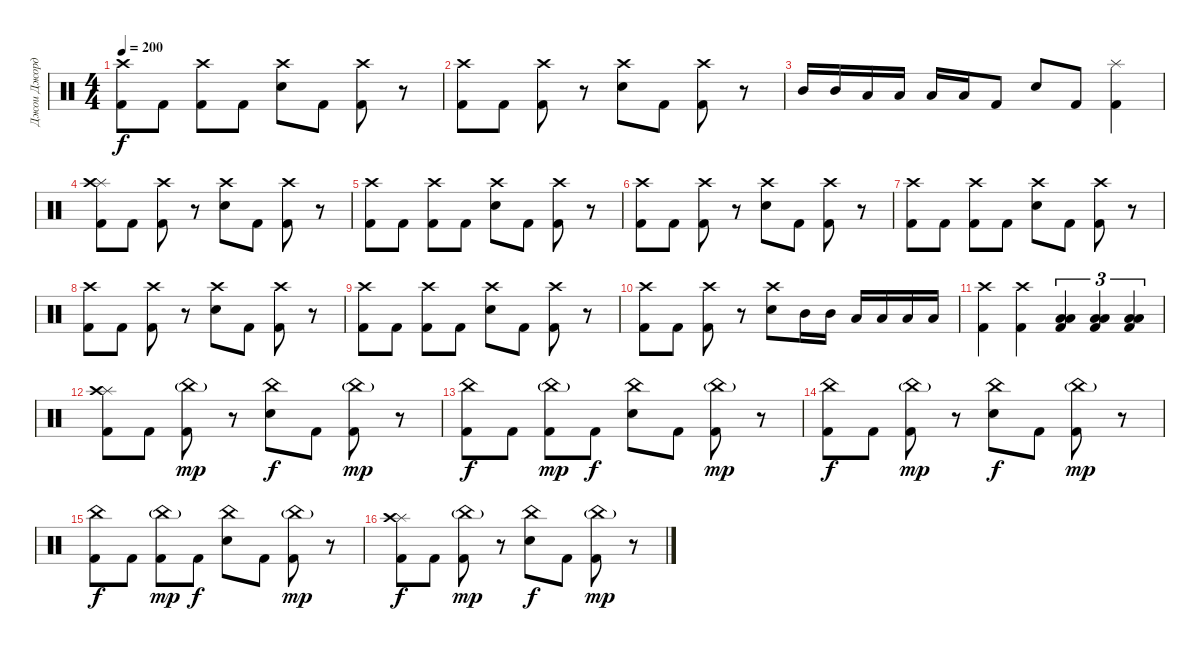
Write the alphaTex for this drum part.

\track ("Джои Джордисон" "Джои Джорд") {instrument percussion}
\staff {score}
\articulation defaults
\ts (4 4)
\tempo 200
\clef neutral
\ks c
("Crash high (hit)" "Kick (hit) 2").8{dy f} "Kick (hit) 2".8 ("Crash high (hit)" "Kick (hit) 2").8 "Kick (hit) 2".8 ("Crash high (hit)" "Electric Snare (hit)").8 "Kick (hit) 2".8 ("Crash high (hit)" "Kick (hit) 2").8 r.8 |
("Crash high (hit)" "Kick (hit) 2").8 "Kick (hit) 2".8 ("Crash high (hit)" "Kick (hit) 2").8 r.8 ("Crash high (hit)" "Electric Snare (hit)").8 "Kick (hit) 2".8 ("Crash high (hit)" "Kick (hit) 2").8 r.8 |
"Mid Tom (hit)".16 "Mid Tom (hit)".16 "Low Tom (hit)".16 "Low Tom (hit)".16 "Low Floor Tom (hit)".16 "Low Floor Tom (hit)".16 "Kick (hit) 2".8 "Electric Snare (hit)".8 "Kick (hit) 2".8 ("Splash (hit)" "Kick (hit) 2").4 |
("Splash (hit)" "Crash high (hit)" "Kick (hit) 2").8 "Kick (hit) 2".8 ("Crash high (hit)" "Kick (hit) 2").8 r.8 ("Crash high (hit)" "Electric Snare (hit)").8 "Kick (hit) 2".8 ("Crash high (hit)" "Kick (hit) 2").8 r.8 |
("Crash high (hit)" "Kick (hit) 2").8 "Kick (hit) 2".8 ("Crash high (hit)" "Kick (hit) 2").8 "Kick (hit) 2".8 ("Crash high (hit)" "Electric Snare (hit)").8 "Kick (hit) 2".8 ("Crash high (hit)" "Kick (hit) 2").8 r.8 |
("Crash high (hit)" "Kick (hit) 2").8 "Kick (hit) 2".8 ("Crash high (hit)" "Kick (hit) 2").8 r.8 ("Crash high (hit)" "Electric Snare (hit)").8 "Kick (hit) 2".8 ("Crash high (hit)" "Kick (hit) 2").8 r.8 |
("Crash high (hit)" "Kick (hit) 2").8 "Kick (hit) 2".8 ("Crash high (hit)" "Kick (hit) 2").8 "Kick (hit) 2".8 ("Crash high (hit)" "Electric Snare (hit)").8 "Kick (hit) 2".8 ("Crash high (hit)" "Kick (hit) 2").8 r.8 |
("Crash high (hit)" "Kick (hit) 2").8 "Kick (hit) 2".8 ("Crash high (hit)" "Kick (hit) 2").8 r.8 ("Crash high (hit)" "Electric Snare (hit)").8 "Kick (hit) 2".8 ("Crash high (hit)" "Kick (hit) 2").8 r.8 |
("Crash high (hit)" "Kick (hit) 2").8 "Kick (hit) 2".8 ("Crash high (hit)" "Kick (hit) 2").8 "Kick (hit) 2".8 ("Crash high (hit)" "Electric Snare (hit)").8 "Kick (hit) 2".8 ("Crash high (hit)" "Kick (hit) 2").8 r.8 |
("Crash high (hit)" "Kick (hit) 2").8 "Kick (hit) 2".8 ("Crash high (hit)" "Kick (hit) 2").8 r.8 ("Crash high (hit)" "Electric Snare (hit)").8 "Mid Tom (hit)".16 "Mid Tom (hit)".16 "Low Tom (hit)".16 "Low Tom (hit)".16 "Low Floor Tom (hit)".16 "Low Floor Tom (hit)".16 |
("Crash high (hit)" "Kick (hit) 2").4 ("Crash high (hit)" "Kick (hit) 2").4 ("Low Floor Tom (hit)" "Low Tom (hit)" "Kick (hit) 2").4{tu (3 2)} ("Low Floor Tom (hit)" "Low Tom (hit)" "Kick (hit) 2").4{tu (3 2)} ("Low Floor Tom (hit)" "Low Tom (hit)" "Kick (hit) 2").4{tu (3 2)} |
("Splash (hit)" "Crash high (hit)" "Kick (hit) 2").8 "Kick (hit) 2".8 ("China (hit)"{g} "Kick (hit) 2").8{dy mp} r.8 ("China (hit)" "Electric Snare (hit)").8{dy f} "Kick (hit) 2".8 ("China (hit)"{g} "Kick (hit) 2").8{dy mp} r.8 |
("China (hit)" "Kick (hit) 2").8{dy f} "Kick (hit) 2".8 ("China (hit)"{g} "Kick (hit) 2").8{dy mp} "Kick (hit) 2".8{dy f} ("China (hit)" "Electric Snare (hit)").8 "Kick (hit) 2".8 ("China (hit)"{g} "Kick (hit) 2").8{dy mp} r.8 |
("China (hit)" "Kick (hit) 2").8{dy f} "Kick (hit) 2".8 ("China (hit)"{g} "Kick (hit) 2").8{dy mp} r.8 ("China (hit)" "Electric Snare (hit)").8{dy f} "Kick (hit) 2".8 ("China (hit)"{g} "Kick (hit) 2").8{dy mp} r.8 |
("China (hit)" "Kick (hit) 2").8{dy f} "Kick (hit) 2".8 ("China (hit)"{g} "Kick (hit) 2").8{dy mp} "Kick (hit) 2".8{dy f} ("China (hit)" "Electric Snare (hit)").8 "Kick (hit) 2".8 ("China (hit)"{g} "Kick (hit) 2").8{dy mp} r.8 |
("Splash (hit)" "Crash high (hit)" "Kick (hit) 2").8{dy f} "Kick (hit) 2".8 ("China (hit)"{g} "Kick (hit) 2").8{dy mp} r.8 ("China (hit)" "Electric Snare (hit)").8{dy f} "Kick (hit) 2".8 ("China (hit)"{g} "Kick (hit) 2").8{dy mp} r.8
